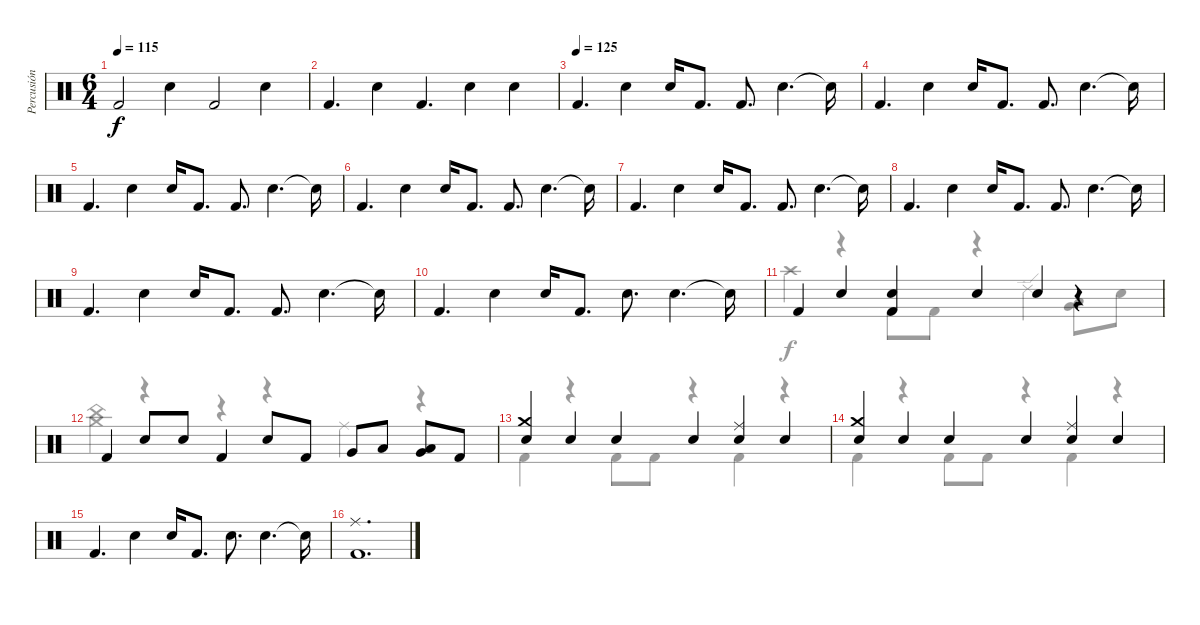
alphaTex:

\track ("Percusión" "Percusión") {instrument percussion}
\staff {score}
\articulation defaults
\voice
\ts (6 4)
\tempo 115
\clef neutral
\ks c "Kick (hit) 2".2{dy f} "Snare (hit) 2".4 "Kick (hit) 2".2 "Snare (hit) 2".4
|
"Kick (hit) 2".4{d} "Snare (hit) 2".4 "Kick (hit) 2".4{d} "Snare (hit) 2".4 "Snare (hit) 2".4 |
\tempo (125)
"Kick (hit) 2".4{d} "Snare (hit) 2".4 "Snare (hit) 2".16 "Kick (hit) 2".8{d} "Kick (hit) 2".8{d} "Snare (hit) 2".4{d} "Snare (hit)"{t}.16 |
"Kick (hit) 2".4{d} "Snare (hit) 2".4 "Snare (hit) 2".16 "Kick (hit) 2".8{d} "Kick (hit) 2".8{d} "Snare (hit) 2".4{d} "Snare (hit)"{t}.16 |
"Kick (hit) 2".4{d} "Snare (hit) 2".4 "Snare (hit) 2".16 "Kick (hit) 2".8{d} "Kick (hit) 2".8{d} "Snare (hit) 2".4{d} "Snare (hit)"{t}.16 |
"Kick (hit) 2".4{d} "Snare (hit) 2".4 "Snare (hit) 2".16 "Kick (hit) 2".8{d} "Kick (hit) 2".8{d} "Snare (hit) 2".4{d} "Snare (hit)"{t}.16 |
"Kick (hit) 2".4{d} "Snare (hit) 2".4 "Snare (hit) 2".16 "Kick (hit) 2".8{d} "Kick (hit) 2".8{d} "Snare (hit) 2".4{d} "Snare (hit)"{t}.16 |
"Kick (hit) 2".4{d} "Snare (hit) 2".4 "Snare (hit) 2".16 "Kick (hit) 2".8{d} "Kick (hit) 2".8{d} "Snare (hit) 2".4{d} "Snare (hit)"{t}.16 |
"Kick (hit) 2".4{d} "Snare (hit) 2".4 "Snare (hit) 2".16 "Kick (hit) 2".8{d} "Kick (hit) 2".8{d} "Snare (hit) 2".4{d} "Snare (hit)"{t}.16 |
"Kick (hit) 2".4{d} "Snare (hit) 2".4 "Snare (hit) 2".16 "Kick (hit) 2".8{d} "Snare (hit) 2".8{d} "Snare (hit) 2".4{d} "Snare (hit) 2"{t}.16 |
"Kick (hit) 2".4 "Snare (hit) 2".4 ("Kick (hit) 2" "Snare (hit) 2").4 "Snare (hit) 2".4 "Snare (hit) 2".4 r.4 |
"Kick (hit) 2".4 "Snare (hit) 2".8 "Snare (hit) 2".8 "Kick (hit) 2".4 "Snare (hit) 2".8 "Kick (hit) 2".8 "Very Low Tom (hit)".8 "Low Tom (hit)".8 ("Low Tom (hit)" "Very Low Tom (hit)").8 "Kick (hit) 2".8 |
("Snare (hit) 2" "Crash medium (hit)").4 "Snare (hit) 2".4 "Snare (hit) 2".4 "Snare (hit) 2".4 ("Snare (hit) 2" "Ride (middle)").4 "Snare (hit) 2".4 |
("Snare (hit) 2" "Crash medium (hit)").4 "Snare (hit) 2".4 "Snare (hit) 2".4 "Snare (hit) 2".4 ("Snare (hit) 2" "Ride (middle)").4 "Snare (hit) 2".4 |
"Kick (hit) 2".4{d} "Snare (hit) 2".4 "Snare (hit) 2".16 "Kick (hit) 2".8{d} "Snare (hit) 2".8{d} "Snare (hit) 2".4{d} "Snare (hit) 2"{t}.16 |
("Kick (hit) 2" "Ride (middle)").1{d}
\voice
\clef neutral
\ottava regular
\simile none
\ks c
|
|
|
|
|
|
|
|
|
|
"Crash high (hit)".4 r.4 "Kick (hit) 2".8 "Kick (hit) 2".8 r.4 "Ride (edge) 2".4 ("Very Low Tom (hit)" "Low Tom (hit)").8 "Snare (hit) 2".8 |
("Crash medium (hit)" "China (hit)").4 r.4 r.4 r.4 "Ride (middle)".4 r.4 |
"Kick (hit) 2".4 r.4 "Kick (hit) 2".8 "Kick (hit) 2".8 r.4 "Kick (hit) 2".4 r.4 |
"Kick (hit) 2".4 r.4 "Kick (hit) 2".8 "Kick (hit) 2".8 r.4 "Kick (hit) 2".4 r.4 |
|
